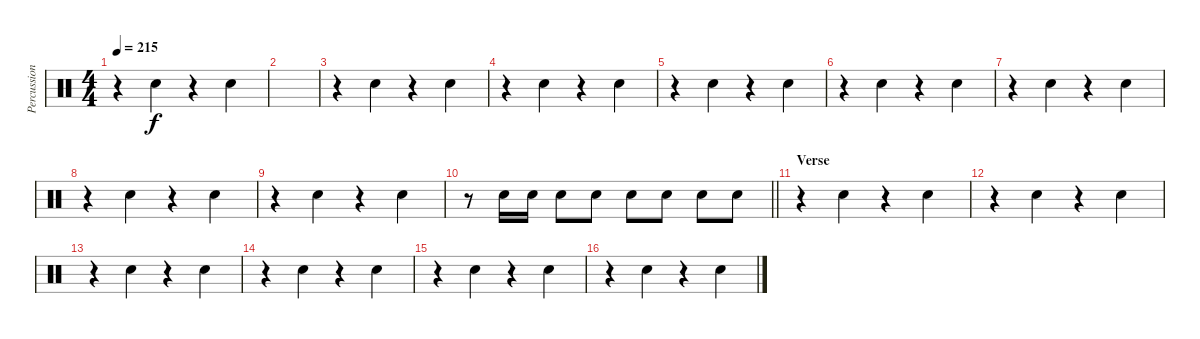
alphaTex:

\track ("Percussion" "Percussion") {instrument percussion}
\staff {score}
\articulation defaults
\ts (4 4)
\tempo 215
\clef neutral
\ks c
r.4{dy f} "Snare (hit) 2".4 r.4 "Snare (hit) 2".4 |
|
r.4 "Snare (hit) 2".4 r.4 "Snare (hit) 2".4 |
r.4 "Snare (hit) 2".4 r.4 "Snare (hit) 2".4 |
r.4 "Snare (hit) 2".4 r.4 "Snare (hit) 2".4 |
r.4 "Snare (hit) 2".4 r.4 "Snare (hit) 2".4 |
r.4 "Snare (hit) 2".4 r.4 "Snare (hit) 2".4 |
r.4 "Snare (hit) 2".4 r.4 "Snare (hit) 2".4 |
r.4 "Snare (hit) 2".4 r.4 "Snare (hit) 2".4 |
\barLineRight lightlight
r.8 "Snare (hit) 2".16 "Snare (hit) 2".16 "Snare (hit) 2".8 "Snare (hit) 2".8 "Snare (hit) 2".8 "Snare (hit) 2".8 "Snare (hit) 2".8 "Snare (hit) 2".8 |
\section ("" "Verse")
r.4 "Snare (hit) 2".4 r.4 "Snare (hit) 2".4 |
r.4 "Snare (hit) 2".4 r.4 "Snare (hit) 2".4 |
r.4 "Snare (hit) 2".4 r.4 "Snare (hit) 2".4 |
r.4 "Snare (hit) 2".4 r.4 "Snare (hit) 2".4 |
r.4 "Snare (hit) 2".4 r.4 "Snare (hit) 2".4 |
r.4 "Snare (hit) 2".4 r.4 "Snare (hit) 2".4
